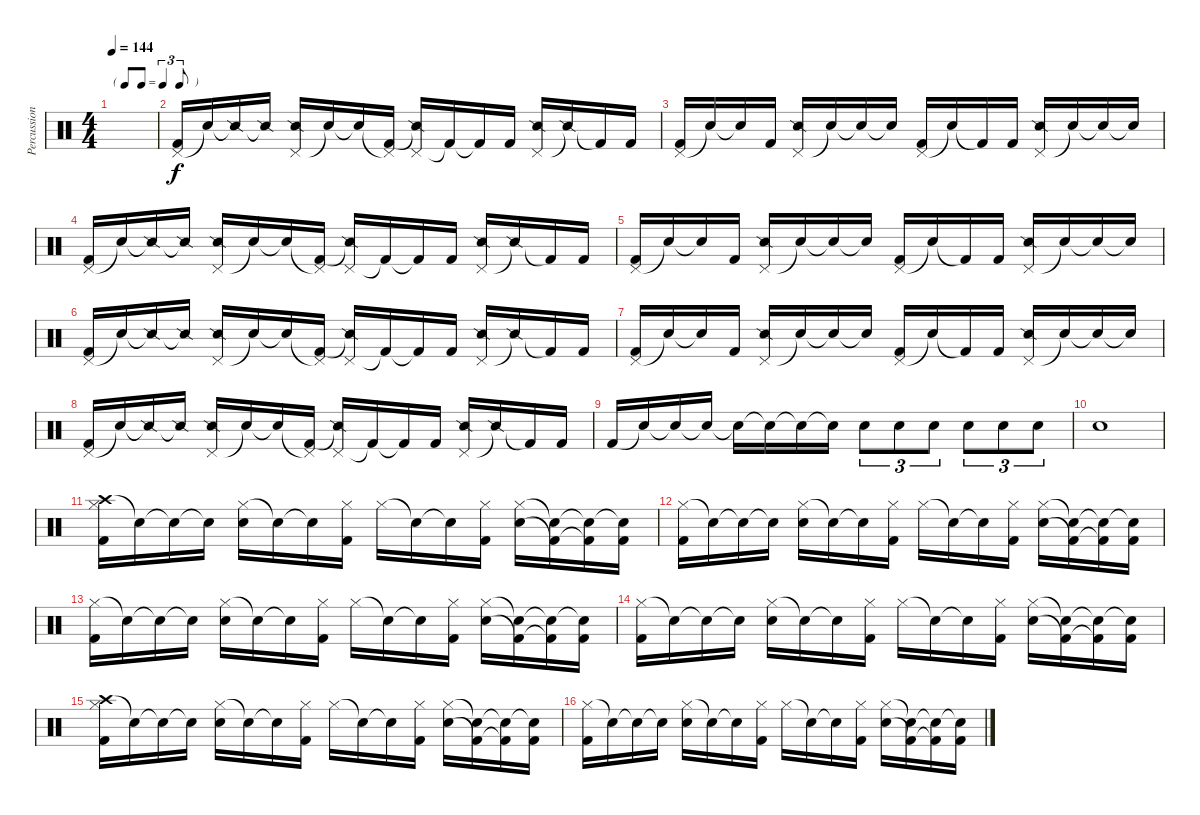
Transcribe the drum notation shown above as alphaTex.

\track ("Percussion" "Percussion") {instrument percussion}
\staff {score}
\articulation defaults
\ts (4 4)
\tf triplet8th
\tempo 144
\clef neutral
\ks c
|
("Pedal Hi-Hat (hit)" "Kick (hit) 2").16 "Snare (hit)"{t}.16 "Snare (side stick) 2"{t}.16 "Snare (side stick) 2"{t}.16 ("Pedal Hi-Hat (hit)" "Snare (side stick) 2").16 "Snare (hit)"{t}.16 "Snare (hit)"{t}.16 ("Pedal Hi-Hat (hit)"{t} "Kick (hit) 2").16 ("Pedal Hi-Hat (hit)" "Snare (side stick) 2"{t}).16 "Kick (hit) 2"{t}.16 "Kick (hit) 2"{t}.16 "Kick (hit) 2".16 ("Pedal Hi-Hat (hit)" "Snare (side stick) 2").16 "Snare (side stick) 2"{t}.16 "Kick (hit) 2"{t}.16 "Kick (hit) 2".16 |
("Pedal Hi-Hat (hit)" "Kick (hit) 2").16 "Snare (hit)"{t}.16 "Snare (hit)"{t}.16 "Kick (hit) 2".16 ("Pedal Hi-Hat (hit)" "Snare (side stick) 2").16 "Snare (hit)"{t}.16 "Snare (hit)"{t}.16 "Snare (hit)"{t}.16 ("Pedal Hi-Hat (hit)" "Kick (hit) 2").16 "Snare (hit)"{t}.16 "Kick (hit) 2"{t}.16 "Kick (hit) 2".16 ("Pedal Hi-Hat (hit)" "Snare (side stick) 2").16 "Snare (hit)"{t}.16 "Snare (hit)"{t}.16 "Snare (hit)"{t}.16 |
("Pedal Hi-Hat (hit)" "Kick (hit) 2").16 "Snare (hit)"{t}.16 "Snare (side stick) 2"{t}.16 "Snare (side stick) 2"{t}.16 ("Pedal Hi-Hat (hit)" "Snare (side stick) 2").16 "Snare (hit)"{t}.16 "Snare (hit)"{t}.16 ("Pedal Hi-Hat (hit)"{t} "Kick (hit) 2").16 ("Pedal Hi-Hat (hit)" "Snare (side stick) 2"{t}).16 "Kick (hit) 2"{t}.16 "Kick (hit) 2"{t}.16 "Kick (hit) 2".16 ("Pedal Hi-Hat (hit)" "Snare (side stick) 2").16 "Snare (side stick) 2"{t}.16 "Kick (hit) 2"{t}.16 "Kick (hit) 2".16 |
("Pedal Hi-Hat (hit)" "Kick (hit) 2").16 "Snare (hit)"{t}.16 "Snare (hit)"{t}.16 "Kick (hit) 2".16 ("Pedal Hi-Hat (hit)" "Snare (side stick) 2").16 "Snare (hit)"{t}.16 "Snare (hit)"{t}.16 "Snare (hit)"{t}.16 ("Pedal Hi-Hat (hit)" "Kick (hit) 2").16 "Snare (hit)"{t}.16 "Kick (hit) 2"{t}.16 "Kick (hit) 2".16 ("Pedal Hi-Hat (hit)" "Snare (side stick) 2").16 "Snare (hit)"{t}.16 "Snare (hit)"{t}.16 "Snare (hit)"{t}.16 |
("Pedal Hi-Hat (hit)" "Kick (hit) 2").16 "Snare (hit)"{t}.16 "Snare (side stick) 2"{t}.16 "Snare (side stick) 2"{t}.16 ("Pedal Hi-Hat (hit)" "Snare (side stick) 2").16 "Snare (hit)"{t}.16 "Snare (hit)"{t}.16 ("Pedal Hi-Hat (hit)"{t} "Kick (hit) 2").16 ("Pedal Hi-Hat (hit)" "Snare (side stick) 2"{t}).16 "Kick (hit) 2"{t}.16 "Kick (hit) 2"{t}.16 "Kick (hit) 2".16 ("Pedal Hi-Hat (hit)" "Snare (side stick) 2").16 "Snare (side stick) 2"{t}.16 "Kick (hit) 2"{t}.16 "Kick (hit) 2".16 |
("Pedal Hi-Hat (hit)" "Kick (hit) 2").16 "Snare (hit)"{t}.16 "Snare (hit)"{t}.16 "Kick (hit) 2".16 ("Pedal Hi-Hat (hit)" "Snare (side stick) 2").16 "Snare (hit)"{t}.16 "Snare (hit)"{t}.16 "Snare (hit)"{t}.16 ("Pedal Hi-Hat (hit)" "Kick (hit) 2").16 "Snare (hit)"{t}.16 "Kick (hit) 2"{t}.16 "Kick (hit) 2".16 ("Pedal Hi-Hat (hit)" "Snare (side stick) 2").16 "Snare (hit)"{t}.16 "Snare (hit)"{t}.16 "Snare (hit)"{t}.16 |
("Pedal Hi-Hat (hit)" "Kick (hit) 2").16 "Snare (hit)"{t}.16 "Snare (side stick) 2"{t}.16 "Snare (side stick) 2"{t}.16 ("Pedal Hi-Hat (hit)" "Snare (side stick) 2").16 "Snare (hit)"{t}.16 "Snare (hit)"{t}.16 ("Pedal Hi-Hat (hit)"{t} "Kick (hit) 2").16 ("Pedal Hi-Hat (hit)" "Snare (side stick) 2"{t}).16 "Kick (hit) 2"{t}.16 "Kick (hit) 2"{t}.16 "Kick (hit) 2".16 ("Pedal Hi-Hat (hit)" "Snare (side stick) 2").16 "Snare (side stick) 2"{t}.16 "Kick (hit) 2"{t}.16 "Kick (hit) 2".16 |
"Kick (hit) 2".16 "Snare (hit)"{t}.16 "Snare (hit)"{t}.16 "Snare (hit)"{t}.16 "Snare (hit)"{t}.16 "Snare (hit)"{t}.16 "Snare (hit)"{t}.16 "Snare (hit)"{t}.16 "Electric Snare (hit)".8{tu (3 2)} "Electric Snare (hit)".8{tu (3 2)} "Electric Snare (hit)".8{tu (3 2)} "Electric Snare (hit)".8{tu (3 2)} "Electric Snare (hit)".8{tu (3 2)} "Electric Snare (hit)".8{tu (3 2)} |
"Electric Snare (hit)".1 |
("Crash high (hit)" "Hi-Hat (closed)" "Kick (hit) 2").16 "Snare (hit)"{t}.16 "Snare (hit)"{t}.16 "Snare (hit)"{t}.16 ("Hi-Hat (closed)" "Electric Snare (hit)").16 "Snare (hit)"{t}.16 "Snare (hit)"{t}.16 ("Hi-Hat (closed)" "Kick (hit) 2").16 "Hi-Hat (closed)".16 "Snare (hit)"{t}.16 "Snare (hit)"{t}.16 ("Hi-Hat (closed)" "Kick (hit) 2").16 ("Hi-Hat (closed)" "Electric Snare (hit)").16 ("Snare (hit)"{t} "Kick (hit) 2"{t}).16 ("Snare (hit)"{t} "Kick (hit) 2"{t}).16 ("Snare (hit)"{t} "Kick (hit) 2").16 |
("Hi-Hat (closed)" "Kick (hit) 2").16 "Snare (hit)"{t}.16 "Snare (hit)"{t}.16 "Snare (hit)"{t}.16 ("Hi-Hat (closed)" "Electric Snare (hit)").16 "Snare (hit)"{t}.16 "Snare (hit)"{t}.16 ("Hi-Hat (closed)" "Kick (hit) 2").16 "Hi-Hat (closed)".16 "Snare (hit)"{t}.16 "Snare (hit)"{t}.16 ("Hi-Hat (closed)" "Kick (hit) 2").16 ("Hi-Hat (closed)" "Electric Snare (hit)").16 ("Snare (hit)"{t} "Kick (hit) 2"{t}).16 ("Snare (hit)"{t} "Kick (hit) 2"{t}).16 ("Snare (hit)"{t} "Kick (hit) 2").16 |
("Hi-Hat (closed)" "Kick (hit) 2").16 "Snare (hit)"{t}.16 "Snare (hit)"{t}.16 "Snare (hit)"{t}.16 ("Hi-Hat (closed)" "Electric Snare (hit)").16 "Snare (hit)"{t}.16 "Snare (hit)"{t}.16 ("Hi-Hat (closed)" "Kick (hit) 2").16 "Hi-Hat (closed)".16 "Snare (hit)"{t}.16 "Snare (hit)"{t}.16 ("Hi-Hat (closed)" "Kick (hit) 2").16 ("Hi-Hat (closed)" "Electric Snare (hit)").16 ("Snare (hit)"{t} "Kick (hit) 2"{t}).16 ("Snare (hit)"{t} "Kick (hit) 2"{t}).16 ("Snare (hit)"{t} "Kick (hit) 2").16 |
("Hi-Hat (closed)" "Kick (hit) 2").16 "Snare (hit)"{t}.16 "Snare (hit)"{t}.16 "Snare (hit)"{t}.16 ("Hi-Hat (closed)" "Electric Snare (hit)").16 "Snare (hit)"{t}.16 "Snare (hit)"{t}.16 ("Hi-Hat (closed)" "Kick (hit) 2").16 "Hi-Hat (closed)".16 "Snare (hit)"{t}.16 "Snare (hit)"{t}.16 ("Hi-Hat (closed)" "Kick (hit) 2").16 ("Hi-Hat (closed)" "Electric Snare (hit)").16 ("Snare (hit)"{t} "Kick (hit) 2"{t}).16 ("Snare (hit)"{t} "Kick (hit) 2"{t}).16 ("Snare (hit)"{t} "Kick (hit) 2").16 |
("Crash high (hit)" "Hi-Hat (closed)" "Kick (hit) 2").16 "Snare (hit)"{t}.16 "Snare (hit)"{t}.16 "Snare (hit)"{t}.16 ("Hi-Hat (closed)" "Electric Snare (hit)").16 "Snare (hit)"{t}.16 "Snare (hit)"{t}.16 ("Hi-Hat (closed)" "Kick (hit) 2").16 "Hi-Hat (closed)".16 "Snare (hit)"{t}.16 "Snare (hit)"{t}.16 ("Hi-Hat (closed)" "Kick (hit) 2").16 ("Hi-Hat (closed)" "Electric Snare (hit)").16 ("Snare (hit)"{t} "Kick (hit) 2"{t}).16 ("Snare (hit)"{t} "Kick (hit) 2"{t}).16 ("Snare (hit)"{t} "Kick (hit) 2").16 |
("Hi-Hat (closed)" "Kick (hit) 2").16 "Snare (hit)"{t}.16 "Snare (hit)"{t}.16 "Snare (hit)"{t}.16 ("Hi-Hat (closed)" "Electric Snare (hit)").16 "Snare (hit)"{t}.16 "Snare (hit)"{t}.16 ("Hi-Hat (closed)" "Kick (hit) 2").16 "Hi-Hat (closed)".16 "Snare (hit)"{t}.16 "Snare (hit)"{t}.16 ("Hi-Hat (closed)" "Kick (hit) 2").16 ("Hi-Hat (closed)" "Electric Snare (hit)").16 ("Snare (hit)"{t} "Kick (hit) 2"{t}).16 ("Snare (hit)"{t} "Kick (hit) 2"{t}).16 ("Snare (hit)"{t} "Kick (hit) 2").16
